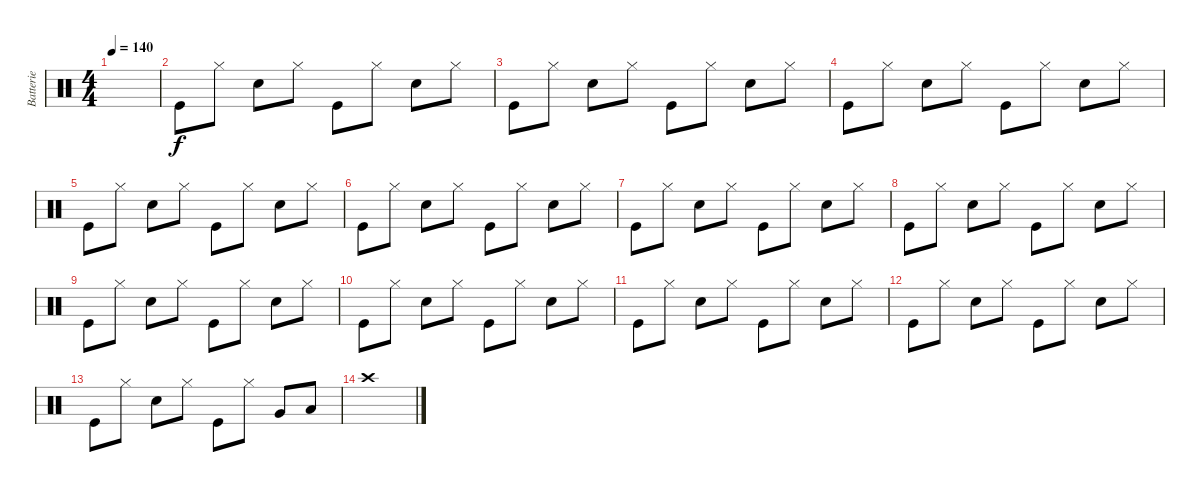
\track ("Batterie" "Batterie") {instrument percussion}
\staff {score}
\articulation defaults
\ts (4 4)
\tempo 140
\clef neutral
\ks c
|
"Kick (hit)".8 "Hi-Hat (closed)".8 "Electric Snare (hit)".8 "Hi-Hat (closed)".8 "Kick (hit)".8 "Hi-Hat (closed)".8 "Electric Snare (hit)".8 "Hi-Hat (closed)".8 |
"Kick (hit)".8 "Hi-Hat (closed)".8 "Electric Snare (hit)".8 "Hi-Hat (closed)".8 "Kick (hit)".8 "Hi-Hat (closed)".8 "Electric Snare (hit)".8 "Hi-Hat (closed)".8 |
"Kick (hit)".8 "Hi-Hat (closed)".8 "Electric Snare (hit)".8 "Hi-Hat (closed)".8 "Kick (hit)".8 "Hi-Hat (closed)".8 "Electric Snare (hit)".8 "Hi-Hat (closed)".8 |
"Kick (hit)".8 "Hi-Hat (closed)".8 "Electric Snare (hit)".8 "Hi-Hat (closed)".8 "Kick (hit)".8 "Hi-Hat (closed)".8 "Electric Snare (hit)".8 "Hi-Hat (closed)".8 |
"Kick (hit)".8 "Hi-Hat (closed)".8 "Electric Snare (hit)".8 "Hi-Hat (closed)".8 "Kick (hit)".8 "Hi-Hat (closed)".8 "Electric Snare (hit)".8 "Hi-Hat (closed)".8 |
"Kick (hit)".8 "Hi-Hat (closed)".8 "Electric Snare (hit)".8 "Hi-Hat (closed)".8 "Kick (hit)".8 "Hi-Hat (closed)".8 "Electric Snare (hit)".8 "Hi-Hat (closed)".8 |
"Kick (hit)".8 "Hi-Hat (closed)".8 "Electric Snare (hit)".8 "Hi-Hat (closed)".8 "Kick (hit)".8 "Hi-Hat (closed)".8 "Electric Snare (hit)".8 "Hi-Hat (closed)".8 |
"Kick (hit)".8 "Hi-Hat (closed)".8 "Electric Snare (hit)".8 "Hi-Hat (closed)".8 "Kick (hit)".8 "Hi-Hat (closed)".8 "Electric Snare (hit)".8 "Hi-Hat (closed)".8 |
"Kick (hit)".8 "Hi-Hat (closed)".8 "Electric Snare (hit)".8 "Hi-Hat (closed)".8 "Kick (hit)".8 "Hi-Hat (closed)".8 "Electric Snare (hit)".8 "Hi-Hat (closed)".8 |
"Kick (hit)".8 "Hi-Hat (closed)".8 "Electric Snare (hit)".8 "Hi-Hat (closed)".8 "Kick (hit)".8 "Hi-Hat (closed)".8 "Electric Snare (hit)".8 "Hi-Hat (closed)".8 |
"Kick (hit)".8 "Hi-Hat (closed)".8 "Electric Snare (hit)".8 "Hi-Hat (closed)".8 "Kick (hit)".8 "Hi-Hat (closed)".8 "Electric Snare (hit)".8 "Hi-Hat (closed)".8 |
"Kick (hit)".8 "Hi-Hat (closed)".8 "Electric Snare (hit)".8 "Hi-Hat (closed)".8 "Kick (hit)".8 "Hi-Hat (closed)".8 "Very Low Tom (hit)".8 "Low Floor Tom (hit)".8 |
"Crash high (hit)".1
